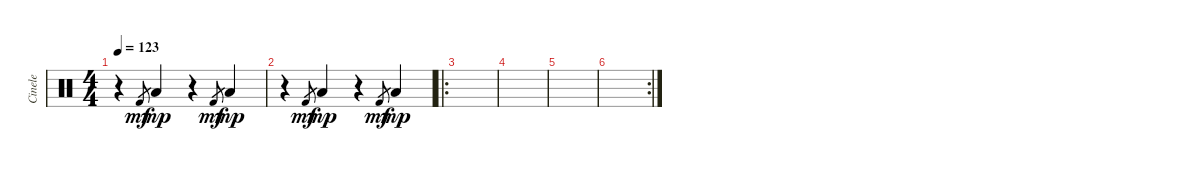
\track ("Cinele" "Cinele") {instrument percussion}
\staff {score}
\articulation defaults
\ts (4 4)
\tempo 123
\clef neutral
\ks c
r.4{dy mp} "Kick (hit) 2".8{gr dy mf} "Low Tom (hit)".4{dy mp} r.4 "Kick (hit) 2".8{gr dy mf} "Low Tom (hit)".4{dy mp} |
r.4 "Kick (hit) 2".8{gr dy mf} "Low Tom (hit)".4{dy mp} r.4 "Kick (hit) 2".8{gr dy mf} "Low Tom (hit)".4{dy mp} |
\ro
|
|
|
\rc 2
